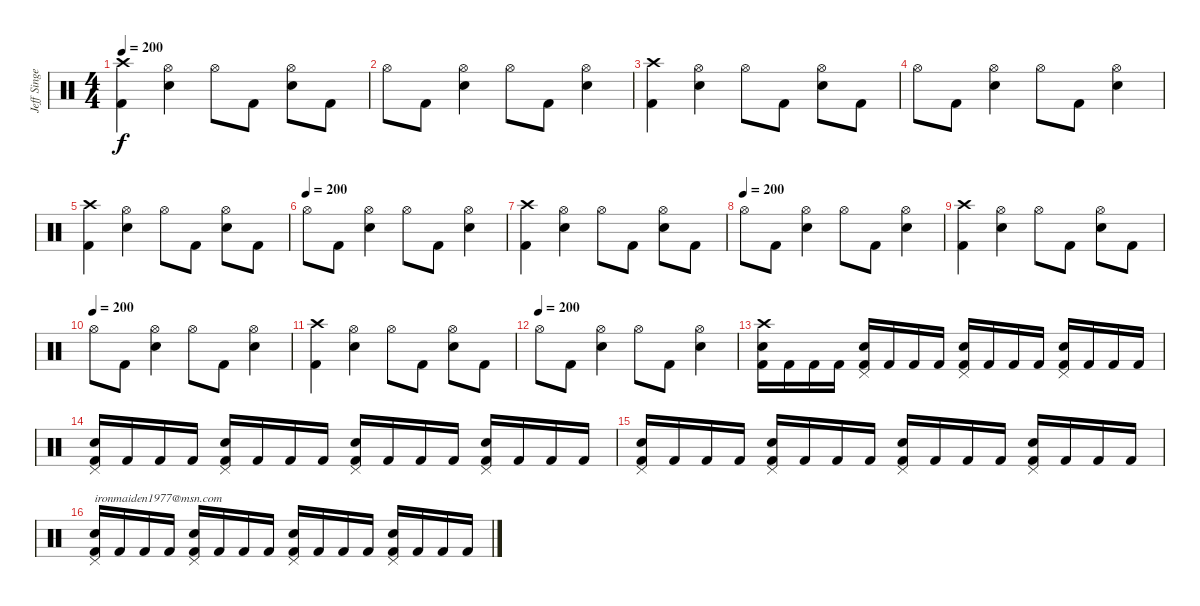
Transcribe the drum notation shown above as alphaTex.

\track ("Jeff Singer" "Jeff Singe") {instrument percussion}
\staff {score}
\articulation defaults
\ts (4 4)
\tempo 200
\clef neutral
\ks c
("Crash high (hit)" "Kick (hit) 2").4{dy f} ("Hi-Hat (open)" "Snare (hit) 2").4 "Hi-Hat (open)".8 "Kick (hit) 2".8 ("Hi-Hat (open)" "Snare (hit) 2").8 "Kick (hit) 2".8 |
"Hi-Hat (open)".8 "Kick (hit) 2".8 ("Hi-Hat (open)" "Snare (hit) 2").4 "Hi-Hat (open)".8 "Kick (hit) 2".8 ("Hi-Hat (open)" "Snare (hit) 2").4 |
("Crash high (hit)" "Kick (hit) 2").4 ("Hi-Hat (open)" "Snare (hit) 2").4 "Hi-Hat (open)".8 "Kick (hit) 2".8 ("Hi-Hat (open)" "Snare (hit) 2").8 "Kick (hit) 2".8 |
"Hi-Hat (open)".8 "Kick (hit) 2".8 ("Hi-Hat (open)" "Snare (hit) 2").4 "Hi-Hat (open)".8 "Kick (hit) 2".8 ("Hi-Hat (open)" "Snare (hit) 2").4 |
("Crash high (hit)" "Kick (hit) 2").4 ("Hi-Hat (open)" "Snare (hit) 2").4 "Hi-Hat (open)".8 "Kick (hit) 2".8 ("Hi-Hat (open)" "Snare (hit) 2").8 "Kick (hit) 2".8 |
\tempo (200)
"Hi-Hat (open)".8 "Kick (hit) 2".8 ("Hi-Hat (open)" "Snare (hit) 2").4 "Hi-Hat (open)".8 "Kick (hit) 2".8 ("Hi-Hat (open)" "Snare (hit) 2").4 |
("Crash high (hit)" "Kick (hit) 2").4 ("Hi-Hat (open)" "Snare (hit) 2").4 "Hi-Hat (open)".8 "Kick (hit) 2".8 ("Hi-Hat (open)" "Snare (hit) 2").8 "Kick (hit) 2".8 |
\tempo (200)
"Hi-Hat (open)".8 "Kick (hit) 2".8 ("Hi-Hat (open)" "Snare (hit) 2").4 "Hi-Hat (open)".8 "Kick (hit) 2".8 ("Hi-Hat (open)" "Snare (hit) 2").4 |
("Crash high (hit)" "Kick (hit) 2").4 ("Hi-Hat (open)" "Snare (hit) 2").4 "Hi-Hat (open)".8 "Kick (hit) 2".8 ("Hi-Hat (open)" "Snare (hit) 2").8 "Kick (hit) 2".8 |
\tempo (200)
"Hi-Hat (open)".8 "Kick (hit) 2".8 ("Hi-Hat (open)" "Snare (hit) 2").4 "Hi-Hat (open)".8 "Kick (hit) 2".8 ("Hi-Hat (open)" "Snare (hit) 2").4 |
("Crash high (hit)" "Kick (hit) 2").4 ("Hi-Hat (open)" "Snare (hit) 2").4 "Hi-Hat (open)".8 "Kick (hit) 2".8 ("Hi-Hat (open)" "Snare (hit) 2").8 "Kick (hit) 2".8 |
\tempo (200)
"Hi-Hat (open)".8 "Kick (hit) 2".8 ("Hi-Hat (open)" "Snare (hit) 2").4 "Hi-Hat (open)".8 "Kick (hit) 2".8 ("Hi-Hat (open)" "Snare (hit) 2").4 |
("Crash high (hit)" "Snare (hit) 2" "Kick (hit) 2").16 "Kick (hit) 2".16 "Kick (hit) 2".16 "Kick (hit) 2".16 ("Pedal Hi-Hat (hit)" "Snare (hit) 2" "Kick (hit) 2").16 "Kick (hit) 2".16 "Kick (hit) 2".16 "Kick (hit) 2".16 ("Pedal Hi-Hat (hit)" "Snare (hit) 2" "Kick (hit) 2").16 "Kick (hit) 2".16 "Kick (hit) 2".16 "Kick (hit) 2".16 ("Pedal Hi-Hat (hit)" "Snare (hit) 2" "Kick (hit) 2").16 "Kick (hit) 2".16 "Kick (hit) 2".16 "Kick (hit) 2".16 |
("Pedal Hi-Hat (hit)" "Snare (hit) 2" "Kick (hit) 2").16 "Kick (hit) 2".16 "Kick (hit) 2".16 "Kick (hit) 2".16 ("Pedal Hi-Hat (hit)" "Snare (hit) 2" "Kick (hit) 2").16 "Kick (hit) 2".16 "Kick (hit) 2".16 "Kick (hit) 2".16 ("Pedal Hi-Hat (hit)" "Snare (hit) 2" "Kick (hit) 2").16 "Kick (hit) 2".16 "Kick (hit) 2".16 "Kick (hit) 2".16 ("Pedal Hi-Hat (hit)" "Snare (hit) 2" "Kick (hit) 2").16 "Kick (hit) 2".16 "Kick (hit) 2".16 "Kick (hit) 2".16 |
("Pedal Hi-Hat (hit)" "Snare (hit) 2" "Kick (hit) 2").16 "Kick (hit) 2".16 "Kick (hit) 2".16 "Kick (hit) 2".16 ("Pedal Hi-Hat (hit)" "Snare (hit) 2" "Kick (hit) 2").16 "Kick (hit) 2".16 "Kick (hit) 2".16 "Kick (hit) 2".16 ("Pedal Hi-Hat (hit)" "Snare (hit) 2" "Kick (hit) 2").16 "Kick (hit) 2".16 "Kick (hit) 2".16 "Kick (hit) 2".16 ("Pedal Hi-Hat (hit)" "Snare (hit) 2" "Kick (hit) 2").16 "Kick (hit) 2".16 "Kick (hit) 2".16 "Kick (hit) 2".16 |
("Pedal Hi-Hat (hit)" "Snare (hit) 2" "Kick (hit) 2").16{txt "ironmaiden1977@msn.com"} "Kick (hit) 2".16 "Kick (hit) 2".16 "Kick (hit) 2".16 ("Pedal Hi-Hat (hit)" "Snare (hit) 2" "Kick (hit) 2").16 "Kick (hit) 2".16 "Kick (hit) 2".16 "Kick (hit) 2".16 ("Pedal Hi-Hat (hit)" "Snare (hit) 2" "Kick (hit) 2").16 "Kick (hit) 2".16 "Kick (hit) 2".16 "Kick (hit) 2".16 ("Pedal Hi-Hat (hit)" "Snare (hit) 2" "Kick (hit) 2").16 "Kick (hit) 2".16 "Kick (hit) 2".16 "Kick (hit) 2".16
